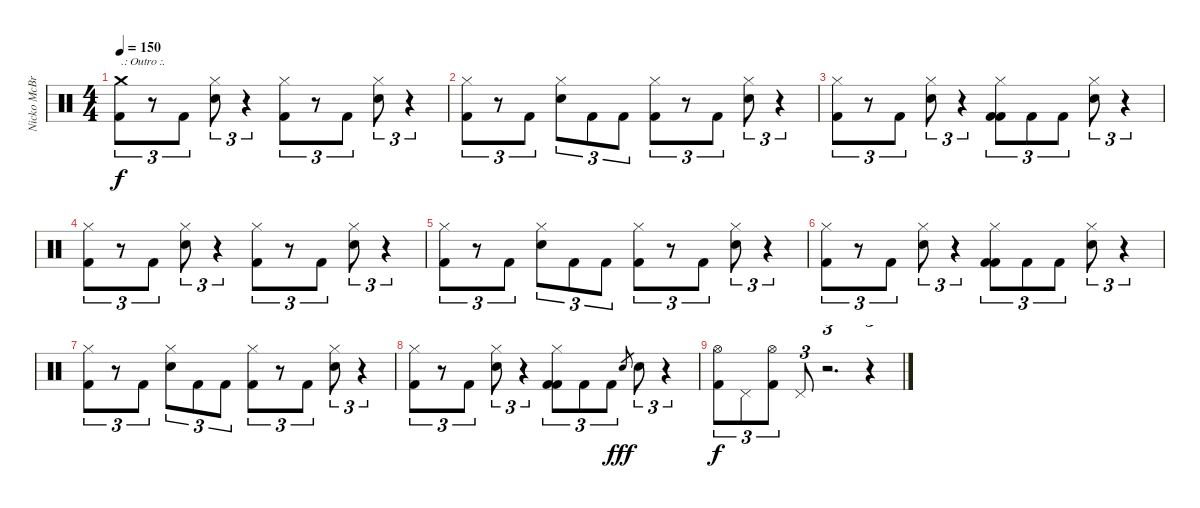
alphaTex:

\track ("Nicko McBrain" "Nicko McBr") {instrument percussion}
\staff {score}
\articulation defaults
\ts (4 4)
\tempo 150
\clef neutral
\ks c
("Crash medium (hit)" "Kick (hit) 2").8{tu (3 2) txt ".: Outro :." dy f} r.8{tu (3 2)} "Kick (hit) 2".8{tu (3 2)} ("Hi-Hat (closed)" "Electric Snare (hit)").8{tu (3 2)} r.4{tu (3 2)} ("Kick (hit) 2" "Hi-Hat (closed)").8{tu (3 2)} r.8{tu (3 2)} "Kick (hit) 2".8{tu (3 2)} ("Hi-Hat (closed)" "Electric Snare (hit)").8{tu (3 2)} r.4{tu (3 2)} |
("Hi-Hat (closed)" "Kick (hit) 2").8{tu (3 2)} r.8{tu (3 2)} "Kick (hit) 2".8{tu (3 2)} ("Hi-Hat (closed)" "Electric Snare (hit)").8{tu (3 2)} "Kick (hit) 2".8{tu (3 2)} "Kick (hit) 2".8{tu (3 2)} ("Kick (hit) 2" "Hi-Hat (closed)").8{tu (3 2)} r.8{tu (3 2)} "Kick (hit) 2".8{tu (3 2)} ("Hi-Hat (closed)" "Electric Snare (hit)").8{tu (3 2)} r.4{tu (3 2)} |
("Hi-Hat (closed)" "Kick (hit) 2").8{tu (3 2)} r.8{tu (3 2)} "Kick (hit) 2".8{tu (3 2)} ("Hi-Hat (closed)" "Electric Snare (hit)").8{tu (3 2)} r.4{tu (3 2)} ("Kick (hit) 2" "Hi-Hat (closed)" "Kick (hit) 2").8{tu (3 2)} "Kick (hit) 2".8{tu (3 2)} "Kick (hit) 2".8{tu (3 2)} ("Hi-Hat (closed)" "Electric Snare (hit)").8{tu (3 2)} r.4{tu (3 2)} |
("Hi-Hat (closed)" "Kick (hit) 2").8{tu (3 2)} r.8{tu (3 2)} "Kick (hit) 2".8{tu (3 2)} ("Hi-Hat (closed)" "Electric Snare (hit)").8{tu (3 2)} r.4{tu (3 2)} ("Kick (hit) 2" "Hi-Hat (closed)").8{tu (3 2)} r.8{tu (3 2)} "Kick (hit) 2".8{tu (3 2)} ("Hi-Hat (closed)" "Electric Snare (hit)").8{tu (3 2)} r.4{tu (3 2)} |
("Hi-Hat (closed)" "Kick (hit) 2").8{tu (3 2)} r.8{tu (3 2)} "Kick (hit) 2".8{tu (3 2)} ("Hi-Hat (closed)" "Electric Snare (hit)").8{tu (3 2)} "Kick (hit) 2".8{tu (3 2)} "Kick (hit) 2".8{tu (3 2)} ("Kick (hit) 2" "Hi-Hat (closed)").8{tu (3 2)} r.8{tu (3 2)} "Kick (hit) 2".8{tu (3 2)} ("Hi-Hat (closed)" "Electric Snare (hit)").8{tu (3 2)} r.4{tu (3 2)} |
("Hi-Hat (closed)" "Kick (hit) 2").8{tu (3 2)} r.8{tu (3 2)} "Kick (hit) 2".8{tu (3 2)} ("Hi-Hat (closed)" "Electric Snare (hit)").8{tu (3 2)} r.4{tu (3 2)} ("Kick (hit) 2" "Hi-Hat (closed)" "Kick (hit) 2").8{tu (3 2)} "Kick (hit) 2".8{tu (3 2)} "Kick (hit) 2".8{tu (3 2)} ("Hi-Hat (closed)" "Electric Snare (hit)").8{tu (3 2)} r.4{tu (3 2)} |
("Hi-Hat (closed)" "Kick (hit) 2").8{tu (3 2)} r.8{tu (3 2)} "Kick (hit) 2".8{tu (3 2)} ("Hi-Hat (closed)" "Electric Snare (hit)").8{tu (3 2)} "Kick (hit) 2".8{tu (3 2)} "Kick (hit) 2".8{tu (3 2)} ("Kick (hit) 2" "Hi-Hat (closed)").8{tu (3 2)} r.8{tu (3 2)} "Kick (hit) 2".8{tu (3 2)} ("Hi-Hat (closed)" "Electric Snare (hit)").8{tu (3 2)} r.4{tu (3 2)} |
("Hi-Hat (closed)" "Kick (hit) 2").8{tu (3 2)} r.8{tu (3 2)} "Kick (hit) 2".8{tu (3 2)} ("Hi-Hat (closed)" "Electric Snare (hit)").8{tu (3 2)} r.4{tu (3 2)} ("Kick (hit) 2" "Hi-Hat (closed)" "Kick (hit) 2").8{tu (3 2)} "Kick (hit) 2".8{tu (3 2)} "Kick (hit) 2".8{tu (3 2)} "Electric Snare (hit)"{h}.8{gr dy fff} "Electric Snare (hit)".8{tu (3 2)} r.4{tu (3 2)} |
("Hi-Hat (open)" "Kick (hit) 2").8{tu (3 2) dy f} "Pedal Hi-Hat (hit)".8{tu (3 2)} ("Hi-Hat (open)" "Kick (hit) 2").8{tu (3 2)} "Pedal Hi-Hat (hit)".8{tu (3 2)} r.2{d tu (3 2)} r.4{tu (3 2)}
